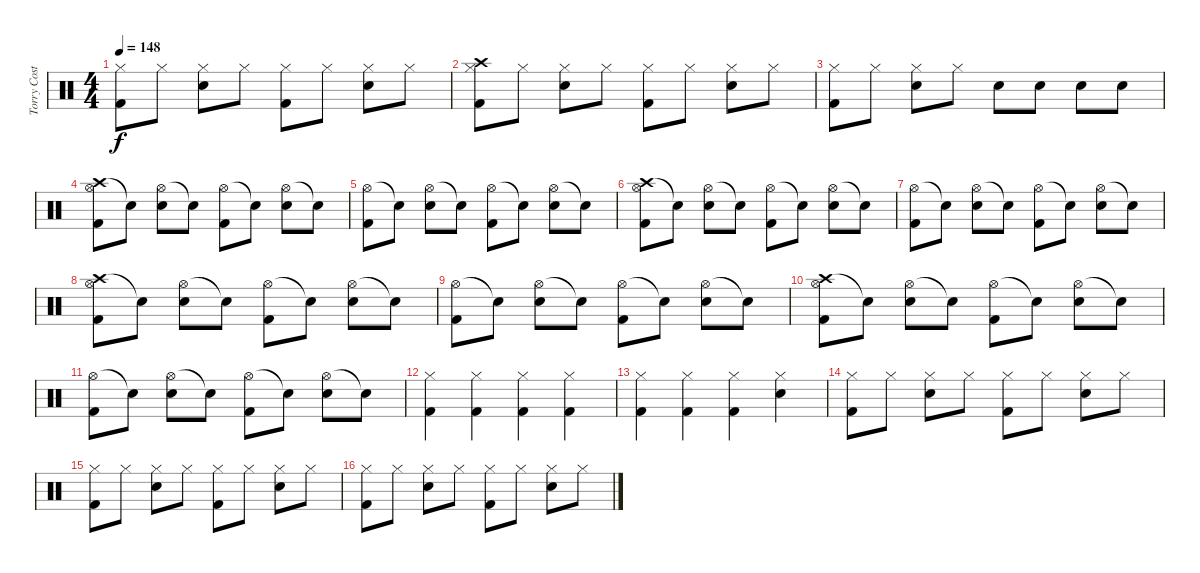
\track ("Torry Costellano" "Torry Cost") {instrument percussion bank 127}
\staff {score}
\articulation defaults
\ts (4 4)
\tempo 148
\clef neutral
\ks c
("Hi-Hat (closed)" "Kick (hit) 2").8{dy f} "Hi-Hat (closed)".8 ("Hi-Hat (closed)" "Electric Snare (hit)").8 "Hi-Hat (closed)".8 ("Hi-Hat (closed)" "Kick (hit) 2").8 "Hi-Hat (closed)".8 ("Hi-Hat (closed)" "Electric Snare (hit)").8 "Hi-Hat (closed)".8 |
("Crash high (hit)" "Hi-Hat (closed)" "Kick (hit) 2").8 "Hi-Hat (closed)".8 ("Hi-Hat (closed)" "Electric Snare (hit)").8 "Hi-Hat (closed)".8 ("Hi-Hat (closed)" "Kick (hit) 2").8 "Hi-Hat (closed)".8 ("Hi-Hat (closed)" "Electric Snare (hit)").8 "Hi-Hat (closed)".8 |
("Hi-Hat (closed)" "Kick (hit) 2").8 "Hi-Hat (closed)".8 ("Hi-Hat (closed)" "Electric Snare (hit)").8 "Hi-Hat (closed)".8 "Electric Snare (hit)".8 "Electric Snare (hit)".8 "Electric Snare (hit)".8 "Electric Snare (hit)".8 |
("Crash high (hit)" "Hi-Hat (open)" "Kick (hit) 2").8 "Snare (hit)"{t}.8 ("Hi-Hat (open)" "Electric Snare (hit)").8 "Snare (hit)"{t}.8 ("Hi-Hat (open)" "Kick (hit) 2").8 "Snare (hit)"{t}.8 ("Hi-Hat (open)" "Electric Snare (hit)").8 "Snare (hit)"{t}.8 |
("Hi-Hat (open)" "Kick (hit) 2").8 "Snare (hit)"{t}.8 ("Hi-Hat (open)" "Electric Snare (hit)").8 "Snare (hit)"{t}.8 ("Hi-Hat (open)" "Kick (hit) 2").8 "Snare (hit)"{t}.8 ("Hi-Hat (open)" "Electric Snare (hit)").8 "Snare (hit)"{t}.8 |
("Crash high (hit)" "Hi-Hat (open)" "Kick (hit) 2").8 "Snare (hit)"{t}.8 ("Hi-Hat (open)" "Electric Snare (hit)").8 "Snare (hit)"{t}.8 ("Hi-Hat (open)" "Kick (hit) 2").8 "Snare (hit)"{t}.8 ("Hi-Hat (open)" "Electric Snare (hit)").8 "Snare (hit)"{t}.8 |
("Hi-Hat (open)" "Kick (hit) 2").8 "Snare (hit)"{t}.8 ("Hi-Hat (open)" "Electric Snare (hit)").8 "Snare (hit)"{t}.8 ("Hi-Hat (open)" "Kick (hit) 2").8 "Snare (hit)"{t}.8 ("Hi-Hat (open)" "Electric Snare (hit)").8 "Snare (hit)"{t}.8 |
("Crash high (hit)" "Hi-Hat (open)" "Kick (hit) 2").8 "Snare (hit)"{t}.8 ("Hi-Hat (open)" "Electric Snare (hit)").8 "Snare (hit)"{t}.8 ("Hi-Hat (open)" "Kick (hit) 2").8 "Snare (hit)"{t}.8 ("Hi-Hat (open)" "Electric Snare (hit)").8 "Snare (hit)"{t}.8 |
("Hi-Hat (open)" "Kick (hit) 2").8 "Snare (hit)"{t}.8 ("Hi-Hat (open)" "Electric Snare (hit)").8 "Snare (hit)"{t}.8 ("Hi-Hat (open)" "Kick (hit) 2").8 "Snare (hit)"{t}.8 ("Hi-Hat (open)" "Electric Snare (hit)").8 "Snare (hit)"{t}.8 |
("Crash high (hit)" "Hi-Hat (open)" "Kick (hit) 2").8 "Snare (hit)"{t}.8 ("Hi-Hat (open)" "Electric Snare (hit)").8 "Snare (hit)"{t}.8 ("Hi-Hat (open)" "Kick (hit) 2").8 "Snare (hit)"{t}.8 ("Hi-Hat (open)" "Electric Snare (hit)").8 "Snare (hit)"{t}.8 |
("Hi-Hat (open)" "Kick (hit) 2").8 "Snare (hit)"{t}.8 ("Hi-Hat (open)" "Electric Snare (hit)").8 "Snare (hit)"{t}.8 ("Hi-Hat (open)" "Kick (hit) 2").8 "Snare (hit)"{t}.8 ("Hi-Hat (open)" "Electric Snare (hit)").8 "Snare (hit)"{t}.8 |
("Hi-Hat (closed)" "Kick (hit) 2").4 ("Hi-Hat (closed)" "Kick (hit) 2").4 ("Hi-Hat (closed)" "Kick (hit) 2").4 ("Hi-Hat (closed)" "Kick (hit) 2").4 |
("Hi-Hat (closed)" "Kick (hit) 2").4 ("Hi-Hat (closed)" "Kick (hit) 2").4 ("Hi-Hat (closed)" "Kick (hit) 2").4 ("Hi-Hat (closed)" "Electric Snare (hit)").4 |
("Hi-Hat (closed)" "Kick (hit) 2").8 "Hi-Hat (closed)".8 ("Hi-Hat (closed)" "Electric Snare (hit)").8 "Hi-Hat (closed)".8 ("Hi-Hat (closed)" "Kick (hit) 2").8 "Hi-Hat (closed)".8 ("Hi-Hat (closed)" "Electric Snare (hit)").8 "Hi-Hat (closed)".8 |
("Hi-Hat (closed)" "Kick (hit) 2").8 "Hi-Hat (closed)".8 ("Hi-Hat (closed)" "Electric Snare (hit)").8 "Hi-Hat (closed)".8 ("Hi-Hat (closed)" "Kick (hit) 2").8 "Hi-Hat (closed)".8 ("Hi-Hat (closed)" "Electric Snare (hit)").8 "Hi-Hat (closed)".8 |
("Hi-Hat (closed)" "Kick (hit) 2").8 "Hi-Hat (closed)".8 ("Hi-Hat (closed)" "Electric Snare (hit)").8 "Hi-Hat (closed)".8 ("Hi-Hat (closed)" "Kick (hit) 2").8 "Hi-Hat (closed)".8 ("Hi-Hat (closed)" "Electric Snare (hit)").8 "Hi-Hat (closed)".8
